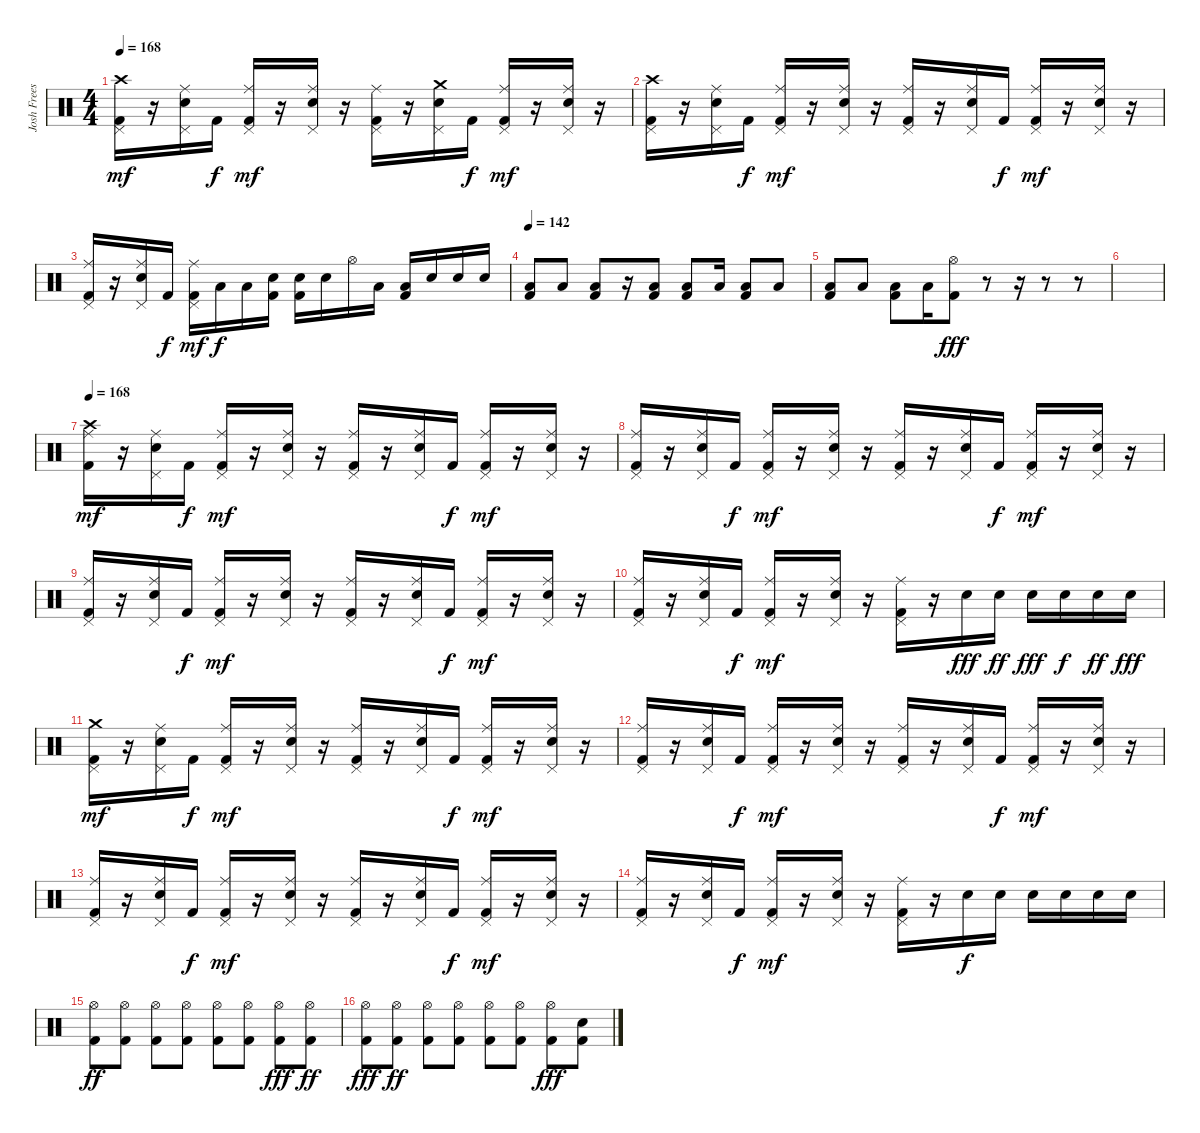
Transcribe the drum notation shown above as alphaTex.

\track ("Josh Freese" "Josh Frees") {instrument percussion}
\staff {score}
\articulation defaults
\ts (4 4)
\tempo 168
\clef neutral
\ks c
("Crash high (hit)" "Kick (hit) 2" "Pedal Hi-Hat (hit)").16{dy mf} r.16 ("Ride (middle)" "Electric Snare (hit)" "Pedal Hi-Hat (hit)").16 "Kick (hit) 2".16{dy f} ("Ride (middle)" "Kick (hit) 2" "Pedal Hi-Hat (hit)").16{dy mf} r.16 ("Ride (middle)" "Electric Snare (hit)" "Pedal Hi-Hat (hit)").16 r.16 ("Ride (middle)" "Kick (hit) 2" "Pedal Hi-Hat (hit)").16 r.16 ("Crash medium (hit)" "Electric Snare (hit)" "Pedal Hi-Hat (hit)").16 "Kick (hit) 2".16{dy f} ("Ride (middle)" "Kick (hit) 2" "Pedal Hi-Hat (hit)").16{dy mf} r.16 ("Ride (middle)" "Electric Snare (hit)" "Pedal Hi-Hat (hit)").16 r.16 |
("Crash high (hit)" "Kick (hit) 2" "Pedal Hi-Hat (hit)").16 r.16 ("Ride (middle)" "Electric Snare (hit)" "Pedal Hi-Hat (hit)").16 "Kick (hit) 2".16{dy f} ("Ride (middle)" "Kick (hit) 2" "Pedal Hi-Hat (hit)").16{dy mf} r.16 ("Ride (middle)" "Electric Snare (hit)" "Pedal Hi-Hat (hit)").16 r.16 ("Ride (middle)" "Kick (hit) 2" "Pedal Hi-Hat (hit)").16 r.16 ("Ride (middle)" "Electric Snare (hit)" "Pedal Hi-Hat (hit)").16 "Kick (hit) 2".16{dy f} ("Ride (middle)" "Kick (hit) 2" "Pedal Hi-Hat (hit)").16{dy mf} r.16 ("Ride (middle)" "Electric Snare (hit)" "Pedal Hi-Hat (hit)").16 r.16 |
("Ride (middle)" "Kick (hit) 2" "Pedal Hi-Hat (hit)").16 r.16 ("Ride (middle)" "Electric Snare (hit)" "Pedal Hi-Hat (hit)").16 "Kick (hit) 2".16{dy f} ("Ride (middle)" "Kick (hit) 2" "Pedal Hi-Hat (hit)").16{dy mf} "Low Tom (hit)".16{dy f} "Low Tom (hit)".16 ("Electric Snare (hit)" "Kick (hit) 2").16 ("Electric Snare (hit)" "Kick (hit) 2").16 "Electric Snare (hit)".16 "Hi-Hat (open)".16 "Low Tom (hit)".16 ("Low Tom (hit)" "Kick (hit) 2").16 "Electric Snare (hit)".16 "Electric Snare (hit)".16 "Electric Snare (hit)".16 |
\tempo 142
("Low Tom (hit)" "Kick (hit) 2").8 "Low Tom (hit)".8 ("Low Floor Tom (hit)" "Kick (hit) 2").8 r.16 ("Low Tom (hit)" "Kick (hit) 2").8 ("Low Tom (hit)" "Kick (hit) 2").8 "Low Tom (hit)".16 ("Low Floor Tom (hit)" "Kick (hit) 2").8 "Low Floor Tom (hit)".8 |
("Low Tom (hit)" "Kick (hit) 2").8 "Low Tom (hit)".8 ("Low Floor Tom (hit)" "Kick (hit) 2").8 "Low Floor Tom (hit)".16 ("Hi-Hat (open)" "Kick (hit) 2").8{dy fff} r.8 r.16 r.8 r.8 |
|
\tempo 168
("Crash high (hit)" "Kick (hit) 2" "Ride (middle)").16{dy mf} r.16 ("Ride (middle)" "Electric Snare (hit)" "Pedal Hi-Hat (hit)").16 "Kick (hit) 2".16{dy f} ("Ride (middle)" "Kick (hit) 2" "Pedal Hi-Hat (hit)").16{dy mf} r.16 ("Ride (middle)" "Electric Snare (hit)" "Pedal Hi-Hat (hit)").16 r.16 ("Ride (middle)" "Kick (hit) 2" "Pedal Hi-Hat (hit)").16 r.16 ("Ride (middle)" "Electric Snare (hit)" "Pedal Hi-Hat (hit)").16 "Kick (hit) 2".16{dy f} ("Ride (middle)" "Kick (hit) 2" "Pedal Hi-Hat (hit)").16{dy mf} r.16 ("Ride (middle)" "Electric Snare (hit)" "Pedal Hi-Hat (hit)").16 r.16 |
("Ride (middle)" "Kick (hit) 2" "Pedal Hi-Hat (hit)").16 r.16 ("Ride (middle)" "Electric Snare (hit)" "Pedal Hi-Hat (hit)").16 "Kick (hit) 2".16{dy f} ("Ride (middle)" "Kick (hit) 2" "Pedal Hi-Hat (hit)").16{dy mf} r.16 ("Ride (middle)" "Electric Snare (hit)" "Pedal Hi-Hat (hit)").16 r.16 ("Ride (middle)" "Kick (hit) 2" "Pedal Hi-Hat (hit)").16 r.16 ("Ride (middle)" "Electric Snare (hit)" "Pedal Hi-Hat (hit)").16 "Kick (hit) 2".16{dy f} ("Ride (middle)" "Kick (hit) 2" "Pedal Hi-Hat (hit)").16{dy mf} r.16 ("Ride (middle)" "Electric Snare (hit)" "Pedal Hi-Hat (hit)").16 r.16 |
("Ride (middle)" "Kick (hit) 2" "Pedal Hi-Hat (hit)").16 r.16 ("Ride (middle)" "Electric Snare (hit)" "Pedal Hi-Hat (hit)").16 "Kick (hit) 2".16{dy f} ("Ride (middle)" "Kick (hit) 2" "Pedal Hi-Hat (hit)").16{dy mf} r.16 ("Ride (middle)" "Electric Snare (hit)" "Pedal Hi-Hat (hit)").16 r.16 ("Ride (middle)" "Kick (hit) 2" "Pedal Hi-Hat (hit)").16 r.16 ("Ride (middle)" "Electric Snare (hit)" "Pedal Hi-Hat (hit)").16 "Kick (hit) 2".16{dy f} ("Ride (middle)" "Kick (hit) 2" "Pedal Hi-Hat (hit)").16{dy mf} r.16 ("Ride (middle)" "Electric Snare (hit)" "Pedal Hi-Hat (hit)").16 r.16 |
("Ride (middle)" "Kick (hit) 2" "Pedal Hi-Hat (hit)").16 r.16 ("Ride (middle)" "Electric Snare (hit)" "Pedal Hi-Hat (hit)").16 "Kick (hit) 2".16{dy f} ("Ride (middle)" "Kick (hit) 2" "Pedal Hi-Hat (hit)").16{dy mf} r.16 ("Ride (middle)" "Electric Snare (hit)" "Pedal Hi-Hat (hit)").16 r.16 ("Ride (middle)" "Kick (hit) 2" "Pedal Hi-Hat (hit)").16 r.16 "Electric Snare (hit)".16{dy fff} "Electric Snare (hit)".16{dy ff} "Electric Snare (hit)".16{dy fff} "Electric Snare (hit)".16{dy f} "Electric Snare (hit)".16{dy ff} "Electric Snare (hit)".16{dy fff} |
("Crash medium (hit)" "Kick (hit) 2" "Pedal Hi-Hat (hit)").16{dy mf} r.16 ("Ride (middle)" "Electric Snare (hit)" "Pedal Hi-Hat (hit)").16 "Kick (hit) 2".16{dy f} ("Ride (middle)" "Kick (hit) 2" "Pedal Hi-Hat (hit)").16{dy mf} r.16 ("Ride (middle)" "Electric Snare (hit)" "Pedal Hi-Hat (hit)").16 r.16 ("Ride (middle)" "Kick (hit) 2" "Pedal Hi-Hat (hit)").16 r.16 ("Ride (middle)" "Electric Snare (hit)" "Pedal Hi-Hat (hit)").16 "Kick (hit) 2".16{dy f} ("Ride (middle)" "Kick (hit) 2" "Pedal Hi-Hat (hit)").16{dy mf} r.16 ("Ride (middle)" "Electric Snare (hit)" "Pedal Hi-Hat (hit)").16 r.16 |
("Ride (middle)" "Kick (hit) 2" "Pedal Hi-Hat (hit)").16 r.16 ("Ride (middle)" "Electric Snare (hit)" "Pedal Hi-Hat (hit)").16 "Kick (hit) 2".16{dy f} ("Ride (middle)" "Kick (hit) 2" "Pedal Hi-Hat (hit)").16{dy mf} r.16 ("Ride (middle)" "Electric Snare (hit)" "Pedal Hi-Hat (hit)").16 r.16 ("Ride (middle)" "Kick (hit) 2" "Pedal Hi-Hat (hit)").16 r.16 ("Ride (middle)" "Electric Snare (hit)" "Pedal Hi-Hat (hit)").16 "Kick (hit) 2".16{dy f} ("Ride (middle)" "Kick (hit) 2" "Pedal Hi-Hat (hit)").16{dy mf} r.16 ("Ride (middle)" "Electric Snare (hit)" "Pedal Hi-Hat (hit)").16 r.16 |
("Ride (middle)" "Kick (hit) 2" "Pedal Hi-Hat (hit)").16 r.16 ("Ride (middle)" "Electric Snare (hit)" "Pedal Hi-Hat (hit)").16 "Kick (hit) 2".16{dy f} ("Ride (middle)" "Kick (hit) 2" "Pedal Hi-Hat (hit)").16{dy mf} r.16 ("Ride (middle)" "Electric Snare (hit)" "Pedal Hi-Hat (hit)").16 r.16 ("Ride (middle)" "Kick (hit) 2" "Pedal Hi-Hat (hit)").16 r.16 ("Ride (middle)" "Electric Snare (hit)" "Pedal Hi-Hat (hit)").16 "Kick (hit) 2".16{dy f} ("Ride (middle)" "Kick (hit) 2" "Pedal Hi-Hat (hit)").16{dy mf} r.16 ("Ride (middle)" "Electric Snare (hit)" "Pedal Hi-Hat (hit)").16 r.16 |
("Ride (middle)" "Kick (hit) 2" "Pedal Hi-Hat (hit)").16 r.16 ("Ride (middle)" "Electric Snare (hit)" "Pedal Hi-Hat (hit)").16 "Kick (hit) 2".16{dy f} ("Ride (middle)" "Kick (hit) 2" "Pedal Hi-Hat (hit)").16{dy mf} r.16 ("Ride (middle)" "Electric Snare (hit)" "Pedal Hi-Hat (hit)").16 r.16 ("Ride (middle)" "Kick (hit) 2" "Pedal Hi-Hat (hit)").16 r.16 "Electric Snare (hit)".16{dy f} "Electric Snare (hit)".16 "Electric Snare (hit)".16 "Electric Snare (hit)".16 "Electric Snare (hit)".16 "Electric Snare (hit)".16 |
("Hi-Hat (open)" "Kick (hit) 2").8{dy ff} ("Hi-Hat (open)" "Kick (hit) 2").8 ("Hi-Hat (open)" "Kick (hit) 2").8 ("Hi-Hat (open)" "Kick (hit) 2").8 ("Hi-Hat (open)" "Kick (hit) 2").8 ("Hi-Hat (open)" "Kick (hit) 2").8 ("Hi-Hat (open)" "Kick (hit) 2").8{dy fff} ("Hi-Hat (open)" "Kick (hit) 2").8{dy ff} |
("Hi-Hat (open)" "Kick (hit) 2").8{dy fff} ("Hi-Hat (open)" "Kick (hit) 2").8{dy ff} ("Hi-Hat (open)" "Kick (hit) 2").8 ("Hi-Hat (open)" "Kick (hit) 2").8 ("Hi-Hat (open)" "Kick (hit) 2").8 ("Hi-Hat (open)" "Kick (hit) 2").8 ("Hi-Hat (open)" "Kick (hit) 2").8{dy fff} ("Kick (hit) 2" "Electric Snare (hit)").8
